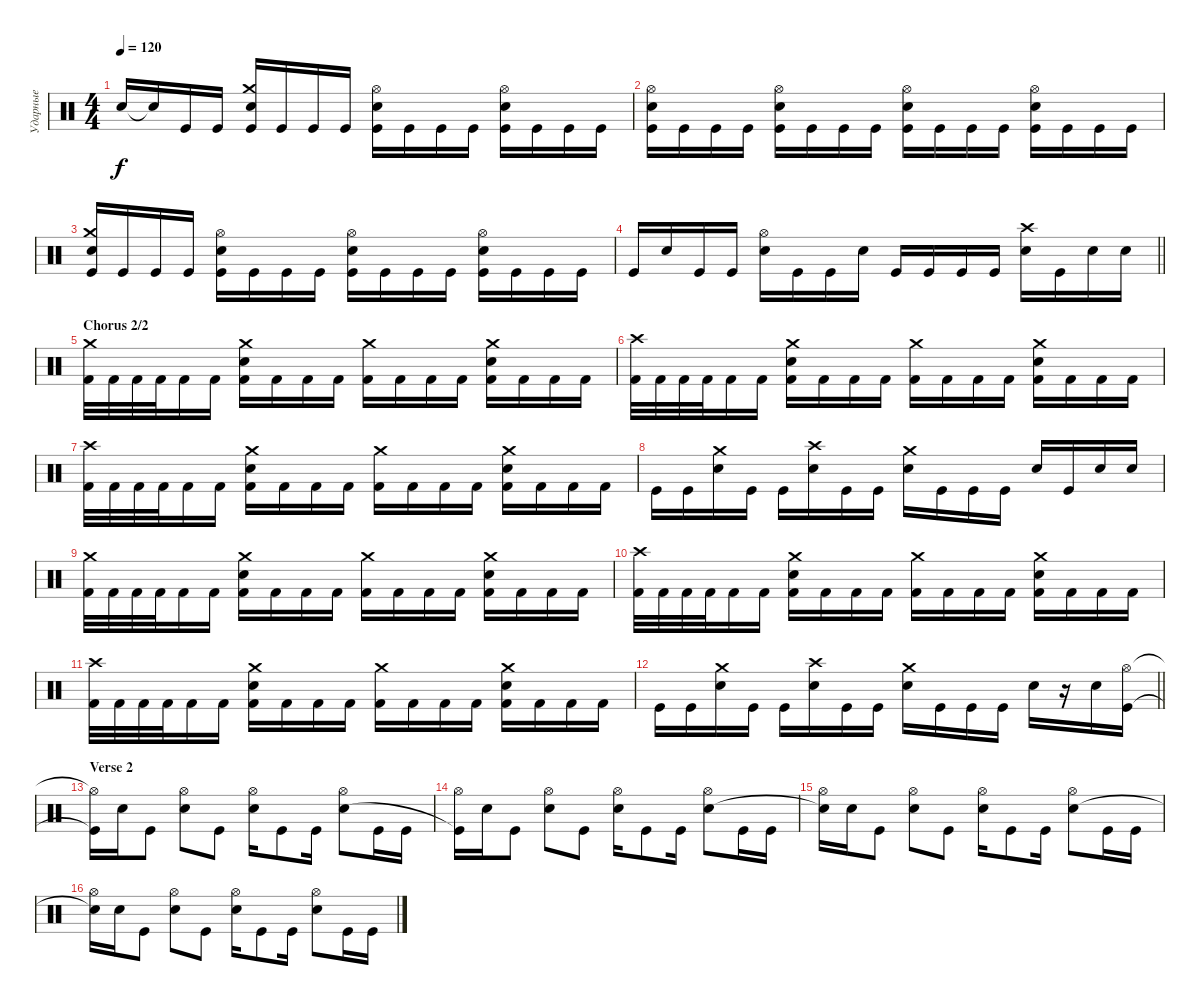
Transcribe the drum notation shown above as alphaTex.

\track ("Ударные" "Ударные") {instrument percussion}
\staff {score}
\articulation defaults
\ts (4 4)
\tempo 120
\clef neutral
\ks c "Snare (hit)"{t}.16{dy f} "Snare (hit)"{t}.16 "Kick (hit)".16 "Kick (hit)".16
("Crash medium (hit)" "Electric Snare (hit)" "Kick (hit)").16 "Kick (hit)".16 "Kick (hit)".16 "Kick (hit)".16 ("Hi-Hat (open)" "Electric Snare (hit)" "Kick (hit)").16 "Kick (hit)".16 "Kick (hit)".16 "Kick (hit)".16 ("Hi-Hat (open)" "Electric Snare (hit)" "Kick (hit)").16 "Kick (hit)".16 "Kick (hit)".16 "Kick (hit)".16 |
("Hi-Hat (open)" "Electric Snare (hit)" "Kick (hit)").16 "Kick (hit)".16 "Kick (hit)".16 "Kick (hit)".16 ("Hi-Hat (open)" "Electric Snare (hit)" "Kick (hit)").16 "Kick (hit)".16 "Kick (hit)".16 "Kick (hit)".16 ("Hi-Hat (open)" "Electric Snare (hit)" "Kick (hit)").16 "Kick (hit)".16 "Kick (hit)".16 "Kick (hit)".16 ("Hi-Hat (open)" "Electric Snare (hit)" "Kick (hit)").16 "Kick (hit)".16 "Kick (hit)".16 "Kick (hit)".16 |
("Crash medium (hit)" "Electric Snare (hit)" "Kick (hit)").16 "Kick (hit)".16 "Kick (hit)".16 "Kick (hit)".16 ("Hi-Hat (open)" "Electric Snare (hit)" "Kick (hit)").16 "Kick (hit)".16 "Kick (hit)".16 "Kick (hit)".16 ("Hi-Hat (open)" "Electric Snare (hit)" "Kick (hit)").16 "Kick (hit)".16 "Kick (hit)".16 "Kick (hit)".16 ("Hi-Hat (open)" "Electric Snare (hit)" "Kick (hit)").16 "Kick (hit)".16 "Kick (hit)".16 "Kick (hit)".16 |
\barLineRight lightlight "Kick (hit)".16 "Electric Snare (hit)".16 "Kick (hit)".16 "Kick (hit)".16
("Hi-Hat (open)" "Electric Snare (hit)").16 "Kick (hit)".16 "Kick (hit)".16 "Electric Snare (hit)".16 "Kick (hit)".16 "Kick (hit)".16 "Kick (hit)".16 "Kick (hit)".16 ("Crash high (hit)" "Electric Snare (hit)").16 "Kick (hit)".16 "Electric Snare (hit)".16 "Electric Snare (hit)".16 |
\section ("" "Chorus 2/2")
("Crash medium (hit)" "Kick (hit) 2").32 "Kick (hit) 2".32 "Kick (hit) 2".32 "Kick (hit) 2".32 "Kick (hit) 2".16 "Kick (hit) 2".16 ("Crash medium (hit)" "Electric Snare (hit)" "Kick (hit) 2").16 "Kick (hit) 2".16 "Kick (hit) 2".16 "Kick (hit) 2".16 ("Crash medium (hit)" "Kick (hit) 2").16 "Kick (hit) 2".16 "Kick (hit) 2".16 "Kick (hit) 2".16 ("Crash medium (hit)" "Electric Snare (hit)" "Kick (hit) 2").16 "Kick (hit) 2".16 "Kick (hit) 2".16 "Kick (hit) 2".16 |
("Crash high (hit)" "Kick (hit) 2").32 "Kick (hit) 2".32 "Kick (hit) 2".32 "Kick (hit) 2".32 "Kick (hit) 2".16 "Kick (hit) 2".16 ("Crash medium (hit)" "Electric Snare (hit)" "Kick (hit) 2").16 "Kick (hit) 2".16 "Kick (hit) 2".16 "Kick (hit) 2".16 ("Crash medium (hit)" "Kick (hit) 2").16 "Kick (hit) 2".16 "Kick (hit) 2".16 "Kick (hit) 2".16 ("Crash medium (hit)" "Electric Snare (hit)" "Kick (hit) 2").16 "Kick (hit) 2".16 "Kick (hit) 2".16 "Kick (hit) 2".16 |
("Crash high (hit)" "Kick (hit) 2").32 "Kick (hit) 2".32 "Kick (hit) 2".32 "Kick (hit) 2".32 "Kick (hit) 2".16 "Kick (hit) 2".16 ("Crash medium (hit)" "Electric Snare (hit)" "Kick (hit) 2").16 "Kick (hit) 2".16 "Kick (hit) 2".16 "Kick (hit) 2".16 ("Crash medium (hit)" "Kick (hit) 2").16 "Kick (hit) 2".16 "Kick (hit) 2".16 "Kick (hit) 2".16 ("Crash medium (hit)" "Electric Snare (hit)" "Kick (hit) 2").16 "Kick (hit) 2".16 "Kick (hit) 2".16 "Kick (hit) 2".16 |
"Kick (hit)".16 "Kick (hit)".16 ("Crash medium (hit)" "Electric Snare (hit)").16 "Kick (hit)".16 "Kick (hit)".16 ("Crash high (hit)" "Electric Snare (hit)").16 "Kick (hit)".16 "Kick (hit)".16 ("Crash medium (hit)" "Electric Snare (hit)").16 "Kick (hit)".16 "Kick (hit)".16 "Kick (hit)".16 "Electric Snare (hit)".16 "Kick (hit)".16 "Electric Snare (hit)".16 "Electric Snare (hit)".16 |
("Crash medium (hit)" "Kick (hit) 2").32 "Kick (hit) 2".32 "Kick (hit) 2".32 "Kick (hit) 2".32 "Kick (hit) 2".16 "Kick (hit) 2".16 ("Crash medium (hit)" "Electric Snare (hit)" "Kick (hit) 2").16 "Kick (hit) 2".16 "Kick (hit) 2".16 "Kick (hit) 2".16 ("Crash medium (hit)" "Kick (hit) 2").16 "Kick (hit) 2".16 "Kick (hit) 2".16 "Kick (hit) 2".16 ("Crash medium (hit)" "Electric Snare (hit)" "Kick (hit) 2").16 "Kick (hit) 2".16 "Kick (hit) 2".16 "Kick (hit) 2".16 |
("Crash high (hit)" "Kick (hit) 2").32 "Kick (hit) 2".32 "Kick (hit) 2".32 "Kick (hit) 2".32 "Kick (hit) 2".16 "Kick (hit) 2".16 ("Crash medium (hit)" "Electric Snare (hit)" "Kick (hit) 2").16 "Kick (hit) 2".16 "Kick (hit) 2".16 "Kick (hit) 2".16 ("Crash medium (hit)" "Kick (hit) 2").16 "Kick (hit) 2".16 "Kick (hit) 2".16 "Kick (hit) 2".16 ("Crash medium (hit)" "Electric Snare (hit)" "Kick (hit) 2").16 "Kick (hit) 2".16 "Kick (hit) 2".16 "Kick (hit) 2".16 |
("Crash high (hit)" "Kick (hit) 2").32 "Kick (hit) 2".32 "Kick (hit) 2".32 "Kick (hit) 2".32 "Kick (hit) 2".16 "Kick (hit) 2".16 ("Crash medium (hit)" "Electric Snare (hit)" "Kick (hit) 2").16 "Kick (hit) 2".16 "Kick (hit) 2".16 "Kick (hit) 2".16 ("Crash medium (hit)" "Kick (hit) 2").16 "Kick (hit) 2".16 "Kick (hit) 2".16 "Kick (hit) 2".16 ("Crash medium (hit)" "Electric Snare (hit)" "Kick (hit) 2").16 "Kick (hit) 2".16 "Kick (hit) 2".16 "Kick (hit) 2".16 |
\barLineRight lightlight "Kick (hit)".16 "Kick (hit)".16
("Crash medium (hit)" "Electric Snare (hit)").16 "Kick (hit)".16 "Kick (hit)".16 ("Crash high (hit)" "Electric Snare (hit)").16 "Kick (hit)".16 "Kick (hit)".16 ("Crash medium (hit)" "Electric Snare (hit)").16 "Kick (hit)".16 "Kick (hit)".16 "Kick (hit)".16 "Electric Snare (hit)".16 r.16 "Electric Snare (hit)".16 ("Hi-Hat (open)" "Kick (hit)").16 |
\section ("" "Verse 2")
("Hi-Hat (open)"{t} "Kick (hit)"{t}).16 "Electric Snare (hit)".16 "Kick (hit)".8 ("Hi-Hat (open)" "Electric Snare (hit)").8 "Kick (hit)".8 ("Hi-Hat (open)" "Electric Snare (hit)").16 "Kick (hit)".8 "Kick (hit)".16 ("Hi-Hat (open)" "Electric Snare (hit)").8 "Kick (hit)".16 "Kick (hit)".16 |
("Hi-Hat (open)" "Kick (hit)"{t}).16 "Electric Snare (hit)".16 "Kick (hit)".8 ("Hi-Hat (open)" "Electric Snare (hit)").8 "Kick (hit)".8 ("Hi-Hat (open)" "Electric Snare (hit)").16 "Kick (hit)".8 "Kick (hit)".16 ("Hi-Hat (open)" "Electric Snare (hit)").8 "Kick (hit)".16 "Kick (hit)".16 |
("Hi-Hat (open)" "Snare (hit)"{t}).16 "Electric Snare (hit)".16 "Kick (hit)".8 ("Hi-Hat (open)" "Electric Snare (hit)").8 "Kick (hit)".8 ("Hi-Hat (open)" "Electric Snare (hit)").16 "Kick (hit)".8 "Kick (hit)".16 ("Hi-Hat (open)" "Electric Snare (hit)").8 "Kick (hit)".16 "Kick (hit)".16 |
("Hi-Hat (open)" "Snare (hit)"{t}).16 "Electric Snare (hit)".16 "Kick (hit)".8 ("Hi-Hat (open)" "Electric Snare (hit)").8 "Kick (hit)".8 ("Hi-Hat (open)" "Electric Snare (hit)").16 "Kick (hit)".8 "Kick (hit)".16 ("Hi-Hat (open)" "Electric Snare (hit)").8 "Kick (hit)".16 "Kick (hit)".16
